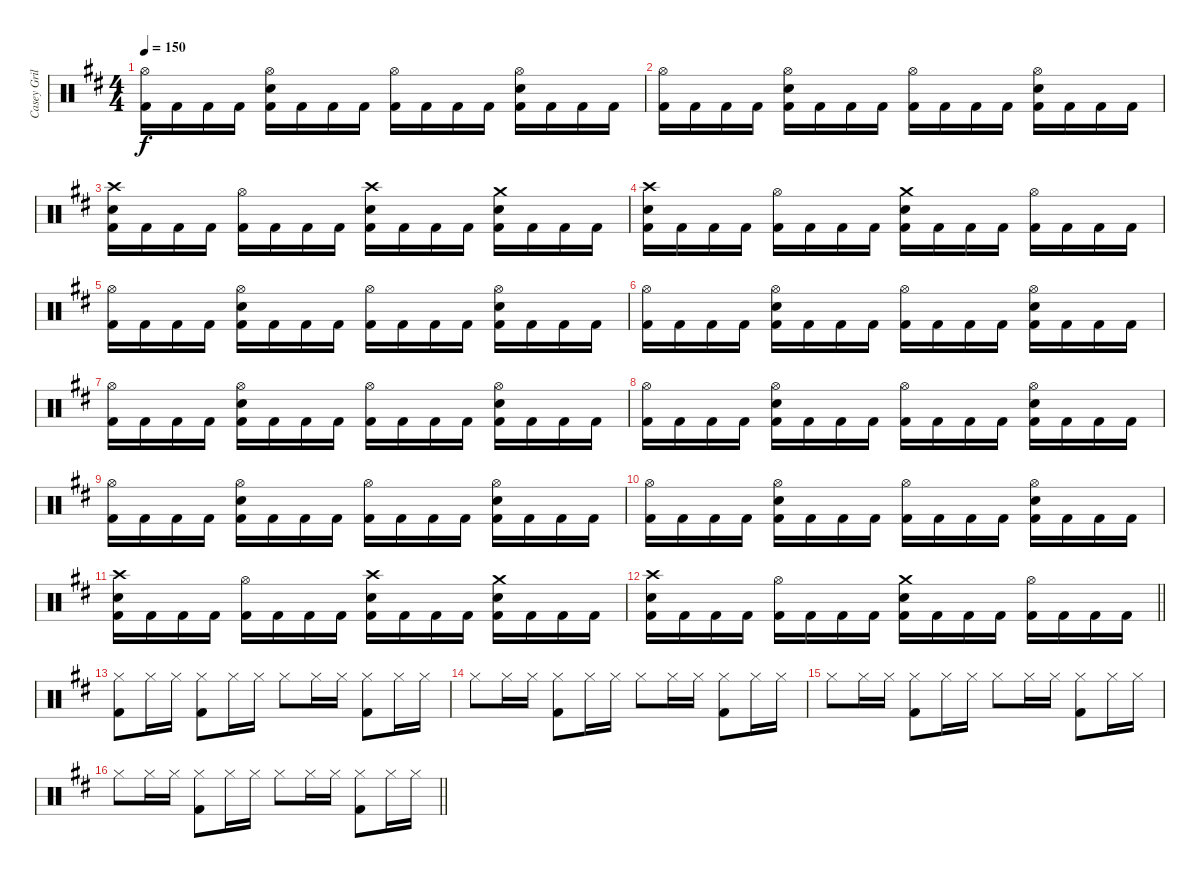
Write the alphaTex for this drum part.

\track ("Casey Grillo" "Casey Gril") {instrument percussion}
\staff {score}
\articulation defaults
\ts (4 4)
\tempo 150
\clef neutral
\ks bminor
("Hi-Hat (open)" "Kick (hit) 2").16{dy f} "Kick (hit) 2".16 "Kick (hit) 2".16 "Kick (hit) 2".16 ("Hi-Hat (open)" "Electric Snare (hit)" "Kick (hit) 2").16 "Kick (hit) 2".16 "Kick (hit) 2".16 "Kick (hit) 2".16 ("Hi-Hat (open)" "Kick (hit) 2").16 "Kick (hit) 2".16 "Kick (hit) 2".16 "Kick (hit) 2".16 ("Hi-Hat (open)" "Electric Snare (hit)" "Kick (hit) 2").16 "Kick (hit) 2".16 "Kick (hit) 2".16 "Kick (hit) 2".16 |
("Hi-Hat (open)" "Kick (hit) 2").16 "Kick (hit) 2".16 "Kick (hit) 2".16 "Kick (hit) 2".16 ("Hi-Hat (open)" "Electric Snare (hit)" "Kick (hit) 2").16 "Kick (hit) 2".16 "Kick (hit) 2".16 "Kick (hit) 2".16 ("Hi-Hat (open)" "Kick (hit) 2").16 "Kick (hit) 2".16 "Kick (hit) 2".16 "Kick (hit) 2".16 ("Hi-Hat (open)" "Electric Snare (hit)" "Kick (hit) 2").16 "Kick (hit) 2".16 "Kick (hit) 2".16 "Kick (hit) 2".16 |
("Crash high (hit)" "Electric Snare (hit)" "Kick (hit) 2").16 "Kick (hit) 2".16 "Kick (hit) 2".16 "Kick (hit) 2".16 ("Hi-Hat (open)" "Kick (hit) 2").16 "Kick (hit) 2".16 "Kick (hit) 2".16 "Kick (hit) 2".16 ("Crash high (hit)" "Electric Snare (hit)" "Kick (hit) 2").16 "Kick (hit) 2".16 "Kick (hit) 2".16 "Kick (hit) 2".16 ("Crash medium (hit)" "Electric Snare (hit)" "Kick (hit) 2").16 "Kick (hit) 2".16 "Kick (hit) 2".16 "Kick (hit) 2".16 |
("Crash high (hit)" "Electric Snare (hit)" "Kick (hit) 2").16 "Kick (hit) 2".16 "Kick (hit) 2".16 "Kick (hit) 2".16 ("Hi-Hat (open)" "Kick (hit) 2").16 "Kick (hit) 2".16 "Kick (hit) 2".16 "Kick (hit) 2".16 ("Crash medium (hit)" "Electric Snare (hit)" "Kick (hit) 2").16 "Kick (hit) 2".16 "Kick (hit) 2".16 "Kick (hit) 2".16 ("Hi-Hat (open)" "Kick (hit) 2").16 "Kick (hit) 2".16 "Kick (hit) 2".16 "Kick (hit) 2".16 |
("Hi-Hat (open)" "Kick (hit) 2").16 "Kick (hit) 2".16 "Kick (hit) 2".16 "Kick (hit) 2".16 ("Hi-Hat (open)" "Electric Snare (hit)" "Kick (hit) 2").16 "Kick (hit) 2".16 "Kick (hit) 2".16 "Kick (hit) 2".16 ("Hi-Hat (open)" "Kick (hit) 2").16 "Kick (hit) 2".16 "Kick (hit) 2".16 "Kick (hit) 2".16 ("Hi-Hat (open)" "Electric Snare (hit)" "Kick (hit) 2").16 "Kick (hit) 2".16 "Kick (hit) 2".16 "Kick (hit) 2".16 |
("Hi-Hat (open)" "Kick (hit) 2").16 "Kick (hit) 2".16 "Kick (hit) 2".16 "Kick (hit) 2".16 ("Hi-Hat (open)" "Electric Snare (hit)" "Kick (hit) 2").16 "Kick (hit) 2".16 "Kick (hit) 2".16 "Kick (hit) 2".16 ("Hi-Hat (open)" "Kick (hit) 2").16 "Kick (hit) 2".16 "Kick (hit) 2".16 "Kick (hit) 2".16 ("Hi-Hat (open)" "Electric Snare (hit)" "Kick (hit) 2").16 "Kick (hit) 2".16 "Kick (hit) 2".16 "Kick (hit) 2".16 |
("Hi-Hat (open)" "Kick (hit) 2").16 "Kick (hit) 2".16 "Kick (hit) 2".16 "Kick (hit) 2".16 ("Hi-Hat (open)" "Electric Snare (hit)" "Kick (hit) 2").16 "Kick (hit) 2".16 "Kick (hit) 2".16 "Kick (hit) 2".16 ("Hi-Hat (open)" "Kick (hit) 2").16 "Kick (hit) 2".16 "Kick (hit) 2".16 "Kick (hit) 2".16 ("Hi-Hat (open)" "Electric Snare (hit)" "Kick (hit) 2").16 "Kick (hit) 2".16 "Kick (hit) 2".16 "Kick (hit) 2".16 |
("Hi-Hat (open)" "Kick (hit) 2").16 "Kick (hit) 2".16 "Kick (hit) 2".16 "Kick (hit) 2".16 ("Hi-Hat (open)" "Electric Snare (hit)" "Kick (hit) 2").16 "Kick (hit) 2".16 "Kick (hit) 2".16 "Kick (hit) 2".16 ("Hi-Hat (open)" "Kick (hit) 2").16 "Kick (hit) 2".16 "Kick (hit) 2".16 "Kick (hit) 2".16 ("Hi-Hat (open)" "Electric Snare (hit)" "Kick (hit) 2").16 "Kick (hit) 2".16 "Kick (hit) 2".16 "Kick (hit) 2".16 |
("Hi-Hat (open)" "Kick (hit) 2").16 "Kick (hit) 2".16 "Kick (hit) 2".16 "Kick (hit) 2".16 ("Hi-Hat (open)" "Electric Snare (hit)" "Kick (hit) 2").16 "Kick (hit) 2".16 "Kick (hit) 2".16 "Kick (hit) 2".16 ("Hi-Hat (open)" "Kick (hit) 2").16 "Kick (hit) 2".16 "Kick (hit) 2".16 "Kick (hit) 2".16 ("Hi-Hat (open)" "Electric Snare (hit)" "Kick (hit) 2").16 "Kick (hit) 2".16 "Kick (hit) 2".16 "Kick (hit) 2".16 |
("Hi-Hat (open)" "Kick (hit) 2").16 "Kick (hit) 2".16 "Kick (hit) 2".16 "Kick (hit) 2".16 ("Hi-Hat (open)" "Electric Snare (hit)" "Kick (hit) 2").16 "Kick (hit) 2".16 "Kick (hit) 2".16 "Kick (hit) 2".16 ("Hi-Hat (open)" "Kick (hit) 2").16 "Kick (hit) 2".16 "Kick (hit) 2".16 "Kick (hit) 2".16 ("Hi-Hat (open)" "Electric Snare (hit)" "Kick (hit) 2").16 "Kick (hit) 2".16 "Kick (hit) 2".16 "Kick (hit) 2".16 |
("Crash high (hit)" "Electric Snare (hit)" "Kick (hit) 2").16 "Kick (hit) 2".16 "Kick (hit) 2".16 "Kick (hit) 2".16 ("Hi-Hat (open)" "Kick (hit) 2").16 "Kick (hit) 2".16 "Kick (hit) 2".16 "Kick (hit) 2".16 ("Crash high (hit)" "Electric Snare (hit)" "Kick (hit) 2").16 "Kick (hit) 2".16 "Kick (hit) 2".16 "Kick (hit) 2".16 ("Crash medium (hit)" "Electric Snare (hit)" "Kick (hit) 2").16 "Kick (hit) 2".16 "Kick (hit) 2".16 "Kick (hit) 2".16 |
\barLineRight lightlight
("Crash high (hit)" "Electric Snare (hit)" "Kick (hit) 2").16 "Kick (hit) 2".16 "Kick (hit) 2".16 "Kick (hit) 2".16 ("Hi-Hat (open)" "Kick (hit) 2").16 "Kick (hit) 2".16 "Kick (hit) 2".16 "Kick (hit) 2".16 ("Crash medium (hit)" "Electric Snare (hit)" "Kick (hit) 2").16 "Kick (hit) 2".16 "Kick (hit) 2".16 "Kick (hit) 2".16 ("Hi-Hat (open)" "Kick (hit) 2").16 "Kick (hit) 2".16 "Kick (hit) 2".16 "Kick (hit) 2".16 |
("Hi-Hat (closed)" "Kick (hit) 2").8 "Hi-Hat (closed)".16 "Hi-Hat (closed)".16 ("Hi-Hat (closed)" "Kick (hit) 2").8 "Hi-Hat (closed)".16 "Hi-Hat (closed)".16 "Hi-Hat (closed)".8 "Hi-Hat (closed)".16 "Hi-Hat (closed)".16 ("Hi-Hat (closed)" "Kick (hit) 2").8 "Hi-Hat (closed)".16 "Hi-Hat (closed)".16 |
"Hi-Hat (closed)".8 "Hi-Hat (closed)".16 "Hi-Hat (closed)".16 ("Hi-Hat (closed)" "Kick (hit) 2").8 "Hi-Hat (closed)".16 "Hi-Hat (closed)".16 "Hi-Hat (closed)".8 "Hi-Hat (closed)".16 "Hi-Hat (closed)".16 ("Hi-Hat (closed)" "Kick (hit) 2").8 "Hi-Hat (closed)".16 "Hi-Hat (closed)".16 |
"Hi-Hat (closed)".8 "Hi-Hat (closed)".16 "Hi-Hat (closed)".16 ("Hi-Hat (closed)" "Kick (hit) 2").8 "Hi-Hat (closed)".16 "Hi-Hat (closed)".16 "Hi-Hat (closed)".8 "Hi-Hat (closed)".16 "Hi-Hat (closed)".16 ("Hi-Hat (closed)" "Kick (hit) 2").8 "Hi-Hat (closed)".16 "Hi-Hat (closed)".16 |
\barLineRight lightlight "Hi-Hat (closed)".8 "Hi-Hat (closed)".16 "Hi-Hat (closed)".16
("Hi-Hat (closed)" "Kick (hit) 2").8 "Hi-Hat (closed)".16 "Hi-Hat (closed)".16 "Hi-Hat (closed)".8 "Hi-Hat (closed)".16 "Hi-Hat (closed)".16 ("Hi-Hat (closed)" "Kick (hit) 2").8 "Hi-Hat (closed)".16 "Hi-Hat (closed)".16
